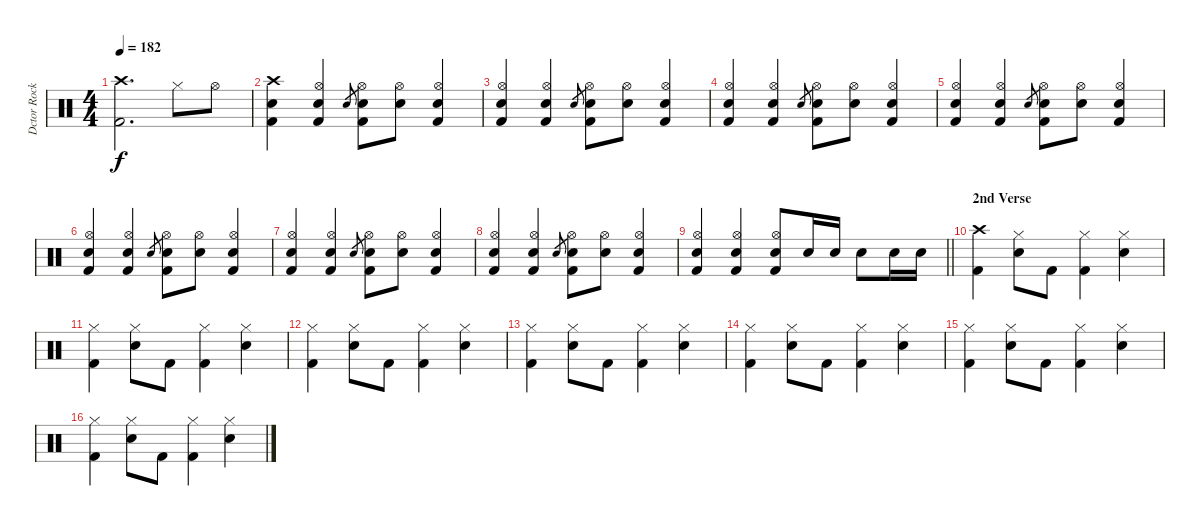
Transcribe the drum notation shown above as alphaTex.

\track ("Dctor Rock" "Dctor Rock") {instrument percussion}
\staff {score}
\articulation defaults
\ts (4 4)
\tempo 182
\clef neutral
\ks c
("Crash high (hit)"{t} "Kick (hit) 2"{t}).2{d dy f} "Hi-Hat (closed)".8 "Hi-Hat (open)".8 |
("Crash high (hit)" "Snare (hit) 2" "Kick (hit) 2").4 ("Hi-Hat (open)" "Snare (hit) 2" "Kick (hit) 2").4 "Snare (hit) 2".8{gr} ("Hi-Hat (open)" "Snare (hit) 2" "Kick (hit) 2").8 ("Hi-Hat (open)" "Snare (hit) 2").8 ("Hi-Hat (open)" "Snare (hit) 2" "Kick (hit) 2").4 |
("Hi-Hat (open)" "Snare (hit) 2" "Kick (hit) 2").4 ("Hi-Hat (open)" "Snare (hit) 2" "Kick (hit) 2").4 "Snare (hit) 2".8{gr} ("Hi-Hat (open)" "Snare (hit) 2" "Kick (hit) 2").8 ("Hi-Hat (open)" "Snare (hit) 2").8 ("Hi-Hat (open)" "Snare (hit) 2" "Kick (hit) 2").4 |
("Hi-Hat (open)" "Snare (hit) 2" "Kick (hit) 2").4 ("Hi-Hat (open)" "Snare (hit) 2" "Kick (hit) 2").4 "Snare (hit) 2".8{gr} ("Hi-Hat (open)" "Snare (hit) 2" "Kick (hit) 2").8 ("Hi-Hat (open)" "Snare (hit) 2").8 ("Hi-Hat (open)" "Snare (hit) 2" "Kick (hit) 2").4 |
("Hi-Hat (open)" "Snare (hit) 2" "Kick (hit) 2").4 ("Hi-Hat (open)" "Snare (hit) 2" "Kick (hit) 2").4 "Snare (hit) 2".8{gr} ("Hi-Hat (open)" "Snare (hit) 2" "Kick (hit) 2").8 ("Hi-Hat (open)" "Snare (hit) 2").8 ("Hi-Hat (open)" "Snare (hit) 2" "Kick (hit) 2").4 |
("Hi-Hat (open)" "Snare (hit) 2" "Kick (hit) 2").4 ("Hi-Hat (open)" "Snare (hit) 2" "Kick (hit) 2").4 "Snare (hit) 2".8{gr} ("Hi-Hat (open)" "Snare (hit) 2" "Kick (hit) 2").8 ("Hi-Hat (open)" "Snare (hit) 2").8 ("Hi-Hat (open)" "Snare (hit) 2" "Kick (hit) 2").4 |
("Hi-Hat (open)" "Snare (hit) 2" "Kick (hit) 2").4 ("Hi-Hat (open)" "Snare (hit) 2" "Kick (hit) 2").4 "Snare (hit) 2".8{gr} ("Hi-Hat (open)" "Snare (hit) 2" "Kick (hit) 2").8 ("Hi-Hat (open)" "Snare (hit) 2").8 ("Hi-Hat (open)" "Snare (hit) 2" "Kick (hit) 2").4 |
("Hi-Hat (open)" "Snare (hit) 2" "Kick (hit) 2").4 ("Hi-Hat (open)" "Snare (hit) 2" "Kick (hit) 2").4 "Snare (hit) 2".8{gr} ("Hi-Hat (open)" "Snare (hit) 2" "Kick (hit) 2").8 ("Hi-Hat (open)" "Snare (hit) 2").8 ("Hi-Hat (open)" "Snare (hit) 2" "Kick (hit) 2").4 |
\barLineRight lightlight
("Hi-Hat (open)" "Snare (hit) 2" "Kick (hit) 2").4 ("Hi-Hat (open)" "Snare (hit) 2" "Kick (hit) 2").4 ("Hi-Hat (open)" "Snare (hit) 2" "Kick (hit) 2").8 "Snare (hit) 2".16 "Snare (hit) 2".16 "Snare (hit) 2".8 "Snare (hit) 2".16 "Snare (hit) 2".16 |
\section ("" "2nd Verse")
("Crash high (hit)" "Kick (hit) 2").4 ("Hi-Hat (closed)" "Snare (hit) 2").8 "Kick (hit) 2".8 ("Hi-Hat (closed)" "Kick (hit) 2").4 ("Hi-Hat (closed)" "Snare (hit) 2").4 |
("Hi-Hat (closed)" "Kick (hit) 2").4 ("Hi-Hat (closed)" "Snare (hit) 2").8 "Kick (hit) 2".8 ("Hi-Hat (closed)" "Kick (hit) 2").4 ("Hi-Hat (closed)" "Snare (hit) 2").4 |
("Hi-Hat (closed)" "Kick (hit) 2").4 ("Hi-Hat (closed)" "Snare (hit) 2").8 "Kick (hit) 2".8 ("Hi-Hat (closed)" "Kick (hit) 2").4 ("Hi-Hat (closed)" "Snare (hit) 2").4 |
("Hi-Hat (closed)" "Kick (hit) 2").4 ("Hi-Hat (closed)" "Snare (hit) 2").8 "Kick (hit) 2".8 ("Hi-Hat (closed)" "Kick (hit) 2").4 ("Hi-Hat (closed)" "Snare (hit) 2").4 |
("Hi-Hat (closed)" "Kick (hit) 2").4 ("Hi-Hat (closed)" "Snare (hit) 2").8 "Kick (hit) 2".8 ("Hi-Hat (closed)" "Kick (hit) 2").4 ("Hi-Hat (closed)" "Snare (hit) 2").4 |
("Hi-Hat (closed)" "Kick (hit) 2").4 ("Hi-Hat (closed)" "Snare (hit) 2").8 "Kick (hit) 2".8 ("Hi-Hat (closed)" "Kick (hit) 2").4 ("Hi-Hat (closed)" "Snare (hit) 2").4 |
("Hi-Hat (closed)" "Kick (hit) 2").4 ("Hi-Hat (closed)" "Snare (hit) 2").8 "Kick (hit) 2".8 ("Hi-Hat (closed)" "Kick (hit) 2").4 ("Hi-Hat (closed)" "Snare (hit) 2").4
